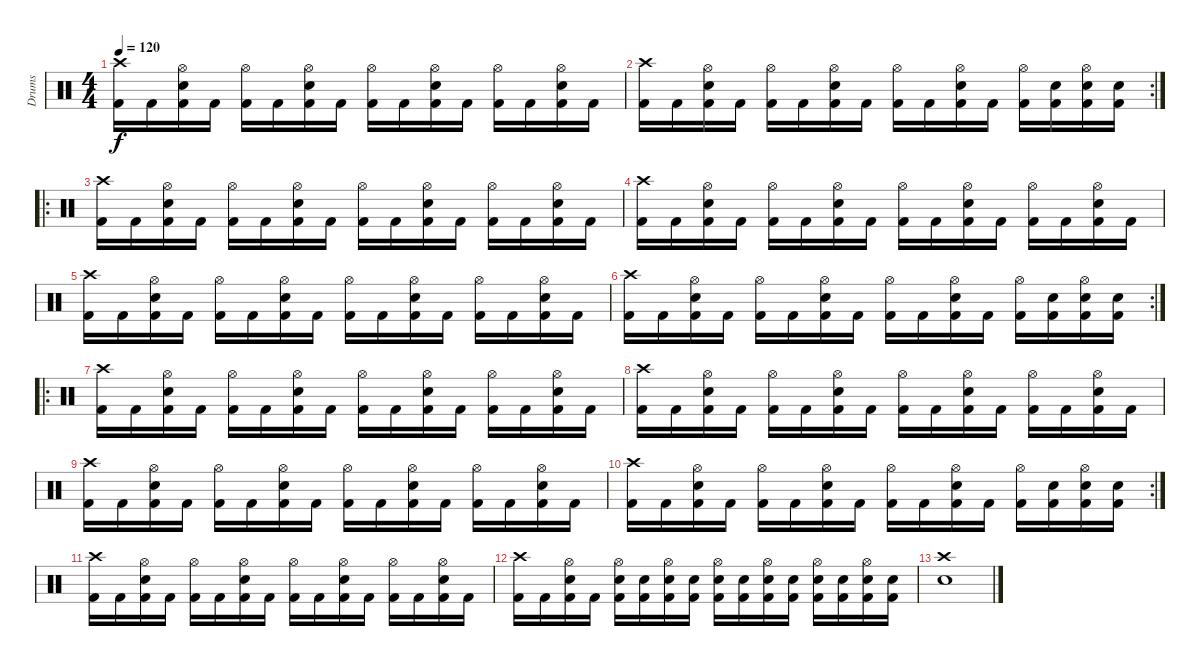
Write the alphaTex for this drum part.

\track ("Drums" "Drums") {instrument percussion}
\staff {score}
\articulation defaults
\ts (4 4)
\tempo 120
\clef neutral
\ks c
("Kick (hit) 2" "Crash high (hit)").16{dy f} "Kick (hit) 2".16 ("Kick (hit) 2" "Snare (hit) 2" "Hi-Hat (open)").16 "Kick (hit) 2".16 ("Kick (hit) 2" "Hi-Hat (open)").16 "Kick (hit) 2".16 ("Kick (hit) 2" "Snare (hit) 2" "Hi-Hat (open)").16 "Kick (hit) 2".16 ("Kick (hit) 2" "Hi-Hat (open)").16 "Kick (hit) 2".16 ("Kick (hit) 2" "Snare (hit) 2" "Hi-Hat (open)").16 "Kick (hit) 2".16 ("Kick (hit) 2" "Hi-Hat (open)").16 "Kick (hit) 2".16 ("Kick (hit) 2" "Snare (hit) 2" "Hi-Hat (open)").16 "Kick (hit) 2".16 |
\rc 2
("Kick (hit) 2" "Crash high (hit)").16 "Kick (hit) 2".16 ("Kick (hit) 2" "Snare (hit) 2" "Hi-Hat (open)").16 "Kick (hit) 2".16 ("Kick (hit) 2" "Hi-Hat (open)").16 "Kick (hit) 2".16 ("Kick (hit) 2" "Snare (hit) 2" "Hi-Hat (open)").16 "Kick (hit) 2".16 ("Kick (hit) 2" "Hi-Hat (open)").16 "Kick (hit) 2".16 ("Kick (hit) 2" "Snare (hit) 2" "Hi-Hat (open)").16 "Kick (hit) 2".16 ("Kick (hit) 2" "Hi-Hat (open)").16 ("Kick (hit) 2" "Snare (hit) 2").16 ("Kick (hit) 2" "Snare (hit) 2" "Hi-Hat (open)").16 ("Kick (hit) 2" "Snare (hit) 2").16 |
\ro
("Kick (hit) 2" "Crash high (hit)").16 "Kick (hit) 2".16 ("Kick (hit) 2" "Snare (hit) 2" "Hi-Hat (open)").16 "Kick (hit) 2".16 ("Kick (hit) 2" "Hi-Hat (open)").16 "Kick (hit) 2".16 ("Kick (hit) 2" "Snare (hit) 2" "Hi-Hat (open)").16 "Kick (hit) 2".16 ("Kick (hit) 2" "Hi-Hat (open)").16 "Kick (hit) 2".16 ("Kick (hit) 2" "Snare (hit) 2" "Hi-Hat (open)").16 "Kick (hit) 2".16 ("Kick (hit) 2" "Hi-Hat (open)").16 "Kick (hit) 2".16 ("Kick (hit) 2" "Snare (hit) 2" "Hi-Hat (open)").16 "Kick (hit) 2".16 |
("Kick (hit) 2" "Crash high (hit)").16 "Kick (hit) 2".16 ("Kick (hit) 2" "Snare (hit) 2" "Hi-Hat (open)").16 "Kick (hit) 2".16 ("Kick (hit) 2" "Hi-Hat (open)").16 "Kick (hit) 2".16 ("Kick (hit) 2" "Snare (hit) 2" "Hi-Hat (open)").16 "Kick (hit) 2".16 ("Kick (hit) 2" "Hi-Hat (open)").16 "Kick (hit) 2".16 ("Kick (hit) 2" "Snare (hit) 2" "Hi-Hat (open)").16 "Kick (hit) 2".16 ("Kick (hit) 2" "Hi-Hat (open)").16 "Kick (hit) 2".16 ("Kick (hit) 2" "Snare (hit) 2" "Hi-Hat (open)").16 "Kick (hit) 2".16 |
("Kick (hit) 2" "Crash high (hit)").16 "Kick (hit) 2".16 ("Kick (hit) 2" "Snare (hit) 2" "Hi-Hat (open)").16 "Kick (hit) 2".16 ("Kick (hit) 2" "Hi-Hat (open)").16 "Kick (hit) 2".16 ("Kick (hit) 2" "Snare (hit) 2" "Hi-Hat (open)").16 "Kick (hit) 2".16 ("Kick (hit) 2" "Hi-Hat (open)").16 "Kick (hit) 2".16 ("Kick (hit) 2" "Snare (hit) 2" "Hi-Hat (open)").16 "Kick (hit) 2".16 ("Kick (hit) 2" "Hi-Hat (open)").16 "Kick (hit) 2".16 ("Kick (hit) 2" "Snare (hit) 2" "Hi-Hat (open)").16 "Kick (hit) 2".16 |
\rc 2
("Kick (hit) 2" "Crash high (hit)").16 "Kick (hit) 2".16 ("Kick (hit) 2" "Snare (hit) 2" "Hi-Hat (open)").16 "Kick (hit) 2".16 ("Kick (hit) 2" "Hi-Hat (open)").16 "Kick (hit) 2".16 ("Kick (hit) 2" "Snare (hit) 2" "Hi-Hat (open)").16 "Kick (hit) 2".16 ("Kick (hit) 2" "Hi-Hat (open)").16 "Kick (hit) 2".16 ("Kick (hit) 2" "Snare (hit) 2" "Hi-Hat (open)").16 "Kick (hit) 2".16 ("Kick (hit) 2" "Hi-Hat (open)").16 ("Kick (hit) 2" "Snare (hit) 2").16 ("Kick (hit) 2" "Snare (hit) 2" "Hi-Hat (open)").16 ("Kick (hit) 2" "Snare (hit) 2").16 |
\ro
("Kick (hit) 2" "Crash high (hit)").16 "Kick (hit) 2".16 ("Kick (hit) 2" "Snare (hit) 2" "Hi-Hat (open)").16 "Kick (hit) 2".16 ("Kick (hit) 2" "Hi-Hat (open)").16 "Kick (hit) 2".16 ("Kick (hit) 2" "Snare (hit) 2" "Hi-Hat (open)").16 "Kick (hit) 2".16 ("Kick (hit) 2" "Hi-Hat (open)").16 "Kick (hit) 2".16 ("Kick (hit) 2" "Snare (hit) 2" "Hi-Hat (open)").16 "Kick (hit) 2".16 ("Kick (hit) 2" "Hi-Hat (open)").16 "Kick (hit) 2".16 ("Kick (hit) 2" "Snare (hit) 2" "Hi-Hat (open)").16 "Kick (hit) 2".16 |
("Kick (hit) 2" "Crash high (hit)").16 "Kick (hit) 2".16 ("Kick (hit) 2" "Snare (hit) 2" "Hi-Hat (open)").16 "Kick (hit) 2".16 ("Kick (hit) 2" "Hi-Hat (open)").16 "Kick (hit) 2".16 ("Kick (hit) 2" "Snare (hit) 2" "Hi-Hat (open)").16 "Kick (hit) 2".16 ("Kick (hit) 2" "Hi-Hat (open)").16 "Kick (hit) 2".16 ("Kick (hit) 2" "Snare (hit) 2" "Hi-Hat (open)").16 "Kick (hit) 2".16 ("Kick (hit) 2" "Hi-Hat (open)").16 "Kick (hit) 2".16 ("Kick (hit) 2" "Snare (hit) 2" "Hi-Hat (open)").16 "Kick (hit) 2".16 |
("Kick (hit) 2" "Crash high (hit)").16 "Kick (hit) 2".16 ("Kick (hit) 2" "Snare (hit) 2" "Hi-Hat (open)").16 "Kick (hit) 2".16 ("Kick (hit) 2" "Hi-Hat (open)").16 "Kick (hit) 2".16 ("Kick (hit) 2" "Snare (hit) 2" "Hi-Hat (open)").16 "Kick (hit) 2".16 ("Kick (hit) 2" "Hi-Hat (open)").16 "Kick (hit) 2".16 ("Kick (hit) 2" "Snare (hit) 2" "Hi-Hat (open)").16 "Kick (hit) 2".16 ("Kick (hit) 2" "Hi-Hat (open)").16 "Kick (hit) 2".16 ("Kick (hit) 2" "Snare (hit) 2" "Hi-Hat (open)").16 "Kick (hit) 2".16 |
\rc 2
("Kick (hit) 2" "Crash high (hit)").16 "Kick (hit) 2".16 ("Kick (hit) 2" "Snare (hit) 2" "Hi-Hat (open)").16 "Kick (hit) 2".16 ("Kick (hit) 2" "Hi-Hat (open)").16 "Kick (hit) 2".16 ("Kick (hit) 2" "Snare (hit) 2" "Hi-Hat (open)").16 "Kick (hit) 2".16 ("Kick (hit) 2" "Hi-Hat (open)").16 "Kick (hit) 2".16 ("Kick (hit) 2" "Snare (hit) 2" "Hi-Hat (open)").16 "Kick (hit) 2".16 ("Kick (hit) 2" "Hi-Hat (open)").16 ("Kick (hit) 2" "Snare (hit) 2").16 ("Kick (hit) 2" "Snare (hit) 2" "Hi-Hat (open)").16 ("Kick (hit) 2" "Snare (hit) 2").16 |
("Kick (hit) 2" "Crash high (hit)").16 "Kick (hit) 2".16 ("Kick (hit) 2" "Snare (hit) 2" "Hi-Hat (open)").16 "Kick (hit) 2".16 ("Kick (hit) 2" "Hi-Hat (open)").16 "Kick (hit) 2".16 ("Kick (hit) 2" "Snare (hit) 2" "Hi-Hat (open)").16 "Kick (hit) 2".16 ("Kick (hit) 2" "Hi-Hat (open)").16 "Kick (hit) 2".16 ("Kick (hit) 2" "Snare (hit) 2" "Hi-Hat (open)").16 "Kick (hit) 2".16 ("Kick (hit) 2" "Hi-Hat (open)").16 "Kick (hit) 2".16 ("Kick (hit) 2" "Snare (hit) 2" "Hi-Hat (open)").16 "Kick (hit) 2".16 |
("Kick (hit) 2" "Crash high (hit)").16 "Kick (hit) 2".16 ("Kick (hit) 2" "Snare (hit) 2" "Hi-Hat (open)").16 "Kick (hit) 2".16 ("Kick (hit) 2" "Hi-Hat (open)" "Snare (hit) 2").16 ("Kick (hit) 2" "Snare (hit) 2").16 ("Kick (hit) 2" "Snare (hit) 2" "Hi-Hat (open)").16 ("Kick (hit) 2" "Snare (hit) 2").16 ("Kick (hit) 2" "Hi-Hat (open)" "Snare (hit) 2").16 ("Kick (hit) 2" "Snare (hit) 2").16 ("Kick (hit) 2" "Snare (hit) 2" "Hi-Hat (open)").16 ("Kick (hit) 2" "Snare (hit) 2").16 ("Kick (hit) 2" "Hi-Hat (open)" "Snare (hit) 2").16 ("Kick (hit) 2" "Snare (hit) 2").16 ("Kick (hit) 2" "Snare (hit) 2" "Hi-Hat (open)").16 ("Kick (hit) 2" "Snare (hit) 2").16 |
("Crash high (hit)" "Snare (hit) 2").1
